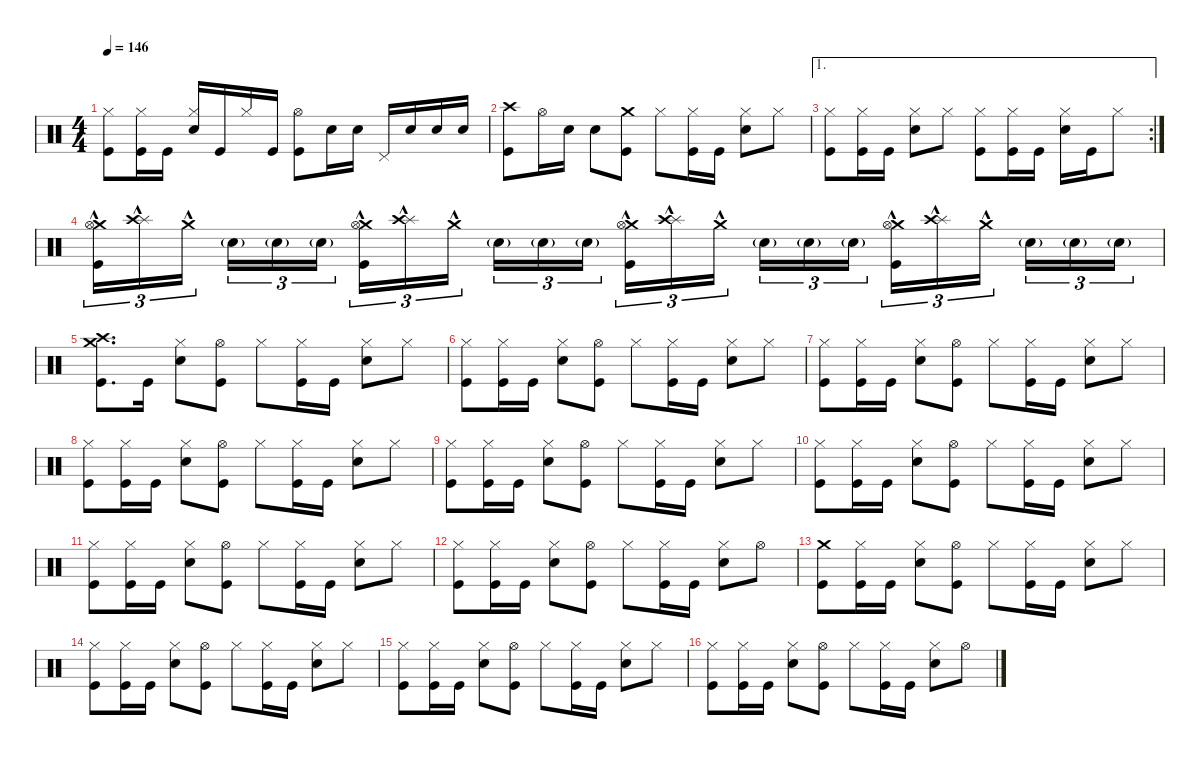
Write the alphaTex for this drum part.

\defaultSystemsLayout 4
\hideDynamics
\bracketExtendMode nobrackets
\singleTrackTrackNamePolicy hidden
\multiTrackTrackNamePolicy hidden
\firstSystemTrackNameMode fullname
\firstSystemTrackNameOrientation horizontal
\otherSystemsTrackNameOrientation horizontal
\track ("Drums" "drm.") {instrument percussion}
\staff {score}
\articulation defaults
\ts (4 4)
\tempo 146
\clef neutral
\ks c
("Hi-Hat (closed)" "Kick (hit)").8{dy f beam Down} ("Hi-Hat (closed)" "Kick (hit)").16{beam Down} "Kick (hit)".16{beam Down} ("Hi-Hat (closed)" "Snare (hit) 2").16{beam Up} "Kick (hit)".16{beam Up} "Hi-Hat (closed)".16{beam Up} "Kick (hit)".16{beam Up} ("Hi-Hat (open)" "Kick (hit)").8{beam Down} "Snare (hit) 2".16{beam Down} "Snare (hit) 2".16{beam Down} "Pedal Hi-Hat (hit)".16{beam Up} "Snare (hit) 2".16{beam Up} "Snare (hit) 2".16{beam Up} "Snare (hit) 2".16{beam Up} |
("Crash high (hit)" "Kick (hit)").8{beam Down} "Hi-Hat (open)".16{beam Down} "Snare (hit) 2".16{beam Down} "Snare (hit) 2".8{beam Down} ("Crash medium (hit)" "Kick (hit)").8{beam Down} "Hi-Hat (closed)".8{beam Down} ("Hi-Hat (closed)" "Kick (hit)").16{beam Down} "Kick (hit)".16{beam Down} ("Hi-Hat (closed)" "Snare (hit) 2").8{beam Down} "Hi-Hat (closed)".8{beam Down} |
\ae 1
\rc 2
("Hi-Hat (closed)" "Kick (hit)").8{beam Down} ("Hi-Hat (closed)" "Kick (hit)").16{beam Down} "Kick (hit)".16{beam Down} ("Hi-Hat (closed)" "Snare (hit) 2").8{beam Down} "Hi-Hat (closed)".8{beam Down} ("Hi-Hat (closed)" "Kick (hit)").8{beam Down} ("Hi-Hat (closed)" "Kick (hit)").16{beam Down} "Kick (hit)".16{beam Down} ("Hi-Hat (closed)" "Snare (hit) 2").16{beam Down} "Kick (hit)".16{beam Down} "Hi-Hat (closed)".8{beam Down} |
("Crash medium (hit)"{hac} "Hi-Hat (open)"{hac} "Kick (hit)"{hac}).16{tu (3 2) beam Down} ("Splash (hit)"{hac} "Crash high (hit)"{hac}).16{tu (3 2) beam Down} "Crash medium (hit)"{hac}.16{tu (3 2) beam Down} "Snare (hit) 2"{g}.16{tu (3 2) dy mf beam Down} "Snare (hit) 2"{g}.16{tu (3 2) beam Down} "Snare (hit) 2"{g}.16{tu (3 2) beam Down} ("Crash medium (hit)"{hac} "Hi-Hat (open)"{hac} "Kick (hit)"{hac}).16{tu (3 2) dy f beam Down} ("Splash (hit)"{hac} "Crash high (hit)"{hac}).16{tu (3 2) beam Down} "Crash medium (hit)"{hac}.16{tu (3 2) beam Down} "Snare (hit) 2"{g}.16{tu (3 2) dy mf beam Down} "Snare (hit) 2"{g}.16{tu (3 2) beam Down} "Snare (hit) 2"{g}.16{tu (3 2) beam Down} ("Crash medium (hit)"{hac} "Hi-Hat (open)"{hac} "Kick (hit)"{hac}).16{tu (3 2) dy f beam Down} ("Splash (hit)"{hac} "Crash high (hit)"{hac}).16{tu (3 2) beam Down} "Crash medium (hit)"{hac}.16{tu (3 2) beam Down} "Snare (hit) 2"{g}.16{tu (3 2) dy mf beam Down} "Snare (hit) 2"{g}.16{tu (3 2) beam Down} "Snare (hit) 2"{g}.16{tu (3 2) beam Down} ("Crash medium (hit)"{hac} "Hi-Hat (open)"{hac} "Kick (hit)"{hac}).16{tu (3 2) dy f beam Down} ("Splash (hit)"{hac} "Crash high (hit)"{hac}).16{tu (3 2) beam Down} "Crash medium (hit)"{hac}.16{tu (3 2) beam Down} "Snare (hit) 2"{g}.16{tu (3 2) dy mf beam Down} "Snare (hit) 2"{g}.16{tu (3 2) beam Down} "Snare (hit) 2"{g}.16{tu (3 2) beam Down} |
("Crash medium (hit)" "Crash high (hit)" "Kick (hit)").8{d dy f beam Down} "Kick (hit)".16{beam Down} ("Hi-Hat (closed)" "Snare (hit) 2").8{beam Down} ("Hi-Hat (open)" "Kick (hit)").8{beam Down} "Hi-Hat (closed)".8{beam Down} ("Hi-Hat (closed)" "Kick (hit)").16{beam Down} "Kick (hit)".16{beam Down} ("Hi-Hat (closed)" "Snare (hit) 2").8{beam Down} "Hi-Hat (closed)".8{beam Down} |
("Hi-Hat (closed)" "Kick (hit)").8{beam Down} ("Hi-Hat (closed)" "Kick (hit)").16{beam Down} "Kick (hit)".16{beam Down} ("Hi-Hat (closed)" "Snare (hit) 2").8{beam Down} ("Hi-Hat (open)" "Kick (hit)").8{beam Down} "Hi-Hat (closed)".8{beam Down} ("Hi-Hat (closed)" "Kick (hit)").16{beam Down} "Kick (hit)".16{beam Down} ("Hi-Hat (closed)" "Snare (hit) 2").8{beam Down} "Hi-Hat (closed)".8{beam Down} |
("Hi-Hat (closed)" "Kick (hit)").8{beam Down} ("Hi-Hat (closed)" "Kick (hit)").16{beam Down} "Kick (hit)".16{beam Down} ("Hi-Hat (closed)" "Snare (hit) 2").8{beam Down} ("Hi-Hat (open)" "Kick (hit)").8{beam Down} "Hi-Hat (closed)".8{beam Down} ("Hi-Hat (closed)" "Kick (hit)").16{beam Down} "Kick (hit)".16{beam Down} ("Hi-Hat (closed)" "Snare (hit) 2").8{beam Down} "Hi-Hat (closed)".8{beam Down} |
("Hi-Hat (closed)" "Kick (hit)").8{beam Down} ("Hi-Hat (closed)" "Kick (hit)").16{beam Down} "Kick (hit)".16{beam Down} ("Hi-Hat (closed)" "Snare (hit) 2").8{beam Down} ("Hi-Hat (open)" "Kick (hit)").8{beam Down} "Hi-Hat (closed)".8{beam Down} ("Hi-Hat (closed)" "Kick (hit)").16{beam Down} "Kick (hit)".16{beam Down} ("Hi-Hat (closed)" "Snare (hit) 2").8{beam Down} "Hi-Hat (closed)".8{beam Down} |
("Hi-Hat (closed)" "Kick (hit)").8{beam Down} ("Hi-Hat (closed)" "Kick (hit)").16{beam Down} "Kick (hit)".16{beam Down} ("Hi-Hat (closed)" "Snare (hit) 2").8{beam Down} ("Hi-Hat (open)" "Kick (hit)").8{beam Down} "Hi-Hat (closed)".8{beam Down} ("Hi-Hat (closed)" "Kick (hit)").16{beam Down} "Kick (hit)".16{beam Down} ("Hi-Hat (closed)" "Snare (hit) 2").8{beam Down} "Hi-Hat (closed)".8{beam Down} |
("Hi-Hat (closed)" "Kick (hit)").8{beam Down} ("Hi-Hat (closed)" "Kick (hit)").16{beam Down} "Kick (hit)".16{beam Down} ("Hi-Hat (closed)" "Snare (hit) 2").8{beam Down} ("Hi-Hat (open)" "Kick (hit)").8{beam Down} "Hi-Hat (closed)".8{beam Down} ("Hi-Hat (closed)" "Kick (hit)").16{beam Down} "Kick (hit)".16{beam Down} ("Hi-Hat (closed)" "Snare (hit) 2").8{beam Down} "Hi-Hat (closed)".8{beam Down} |
("Hi-Hat (closed)" "Kick (hit)").8{beam Down} ("Hi-Hat (closed)" "Kick (hit)").16{beam Down} "Kick (hit)".16{beam Down} ("Hi-Hat (closed)" "Snare (hit) 2").8{beam Down} ("Hi-Hat (open)" "Kick (hit)").8{beam Down} "Hi-Hat (closed)".8{beam Down} ("Hi-Hat (closed)" "Kick (hit)").16{beam Down} "Kick (hit)".16{beam Down} ("Hi-Hat (closed)" "Snare (hit) 2").8{beam Down} "Hi-Hat (closed)".8{beam Down} |
("Hi-Hat (closed)" "Kick (hit)").8{beam Down} ("Hi-Hat (closed)" "Kick (hit)").16{beam Down} "Kick (hit)".16{beam Down} ("Hi-Hat (closed)" "Snare (hit) 2").8{beam Down} ("Hi-Hat (open)" "Kick (hit)").8{beam Down} "Hi-Hat (closed)".8{beam Down} ("Hi-Hat (closed)" "Kick (hit)").16{beam Down} "Kick (hit)".16{beam Down} ("Hi-Hat (closed)" "Snare (hit) 2").8{beam Down} "Hi-Hat (open)".8{beam Down} |
("Crash medium (hit)" "Kick (hit)").8{beam Down} ("Hi-Hat (closed)" "Kick (hit)").16{beam Down} "Kick (hit)".16{beam Down} ("Hi-Hat (closed)" "Snare (hit) 2").8{beam Down} ("Hi-Hat (open)" "Kick (hit)").8{beam Down} "Hi-Hat (closed)".8{beam Down} ("Hi-Hat (closed)" "Kick (hit)").16{beam Down} "Kick (hit)".16{beam Down} ("Hi-Hat (closed)" "Snare (hit) 2").8{beam Down} "Hi-Hat (closed)".8{beam Down} |
("Hi-Hat (closed)" "Kick (hit)").8{beam Down} ("Hi-Hat (closed)" "Kick (hit)").16{beam Down} "Kick (hit)".16{beam Down} ("Hi-Hat (closed)" "Snare (hit) 2").8{beam Down} ("Hi-Hat (open)" "Kick (hit)").8{beam Down} "Hi-Hat (closed)".8{beam Down} ("Hi-Hat (closed)" "Kick (hit)").16{beam Down} "Kick (hit)".16{beam Down} ("Hi-Hat (closed)" "Snare (hit) 2").8{beam Down} "Hi-Hat (closed)".8{beam Down} |
("Hi-Hat (closed)" "Kick (hit)").8{beam Down} ("Hi-Hat (closed)" "Kick (hit)").16{beam Down} "Kick (hit)".16{beam Down} ("Hi-Hat (closed)" "Snare (hit) 2").8{beam Down} ("Hi-Hat (open)" "Kick (hit)").8{beam Down} "Hi-Hat (closed)".8{beam Down} ("Hi-Hat (closed)" "Kick (hit)").16{beam Down} "Kick (hit)".16{beam Down} ("Hi-Hat (closed)" "Snare (hit) 2").8{beam Down} "Hi-Hat (closed)".8{beam Down} |
("Hi-Hat (closed)" "Kick (hit)").8{beam Down} ("Hi-Hat (closed)" "Kick (hit)").16{beam Down} "Kick (hit)".16{beam Down} ("Hi-Hat (closed)" "Snare (hit) 2").8{beam Down} ("Hi-Hat (open)" "Kick (hit)").8{beam Down} "Hi-Hat (closed)".8{beam Down} ("Hi-Hat (closed)" "Kick (hit)").16{beam Down} "Kick (hit)".16{beam Down} ("Hi-Hat (closed)" "Snare (hit) 2").8{beam Down} "Hi-Hat (open)".8{beam Down}
